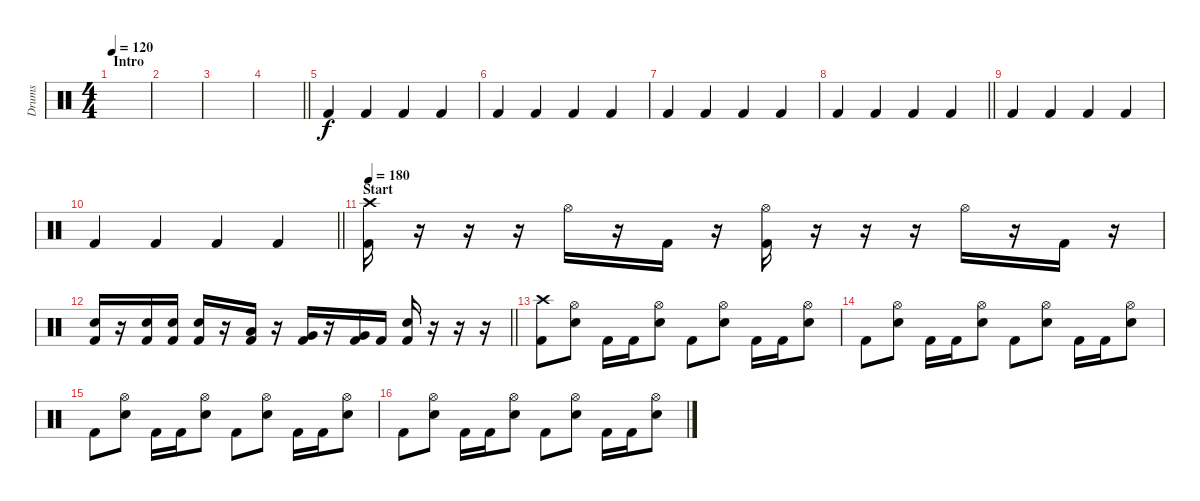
\track ("Drums" "Drums") {instrument percussion}
\staff {score}
\articulation defaults
\ts (4 4)
\section ("" "Intro")
\tempo 120
\clef neutral
\ks c
|
|
|
\barLineRight lightlight
|
\section ("" "")
"Kick (hit) 2".4 "Kick (hit) 2".4 "Kick (hit) 2".4 "Kick (hit) 2".4 |
"Kick (hit) 2".4 "Kick (hit) 2".4 "Kick (hit) 2".4 "Kick (hit) 2".4 |
"Kick (hit) 2".4 "Kick (hit) 2".4 "Kick (hit) 2".4 "Kick (hit) 2".4 |
\barLineRight lightlight "Kick (hit) 2".4 "Kick (hit) 2".4 "Kick (hit) 2".4 "Kick (hit) 2".4
|
"Kick (hit) 2".4 "Kick (hit) 2".4 "Kick (hit) 2".4 "Kick (hit) 2".4 |
\barLineRight lightlight "Kick (hit) 2".4 "Kick (hit) 2".4 "Kick (hit) 2".4 "Kick (hit) 2".4
|
\section ("" "Start")
\tempo 180
("Crash high (hit)" "Kick (hit) 2").16 r.16 r.16 r.16 "Hi-Hat (open)".16 r.16 "Kick (hit) 2".16 r.16 ("Hi-Hat (open)" "Kick (hit) 2").16 r.16 r.16 r.16 "Hi-Hat (open)".16 r.16 "Kick (hit) 2".16 r.16 |
\barLineRight lightlight
("Electric Snare (hit)" "Kick (hit) 2").16 r.16 ("Electric Snare (hit)" "Kick (hit) 2").16 ("Electric Snare (hit)" "Kick (hit) 2").16 ("Electric Snare (hit)" "Kick (hit) 2").16 r.16 ("Low Tom (hit)" "Kick (hit) 2").16 r.16 ("Very Low Tom (hit)" "Kick (hit) 2").16 r.16 ("Very Low Tom (hit)" "Kick (hit) 2").16 "Kick (hit) 2".16 ("Electric Snare (hit)" "Kick (hit) 2").16 r.16 r.16 r.16 |
\section ("" "")
("Crash high (hit)" "Kick (hit) 2").8 ("Hi-Hat (open)" "Electric Snare (hit)").8 "Kick (hit) 2".16 "Kick (hit) 2".16 ("Hi-Hat (open)" "Electric Snare (hit)").8 "Kick (hit) 2".8 ("Hi-Hat (open)" "Electric Snare (hit)").8 "Kick (hit) 2".16 "Kick (hit) 2".16 ("Hi-Hat (open)" "Electric Snare (hit)").8 |
"Kick (hit) 2".8 ("Hi-Hat (open)" "Electric Snare (hit)").8 "Kick (hit) 2".16 "Kick (hit) 2".16 ("Hi-Hat (open)" "Electric Snare (hit)").8 "Kick (hit) 2".8 ("Hi-Hat (open)" "Electric Snare (hit)").8 "Kick (hit) 2".16 "Kick (hit) 2".16 ("Hi-Hat (open)" "Electric Snare (hit)").8 |
"Kick (hit) 2".8 ("Hi-Hat (open)" "Electric Snare (hit)").8 "Kick (hit) 2".16 "Kick (hit) 2".16 ("Hi-Hat (open)" "Electric Snare (hit)").8 "Kick (hit) 2".8 ("Hi-Hat (open)" "Electric Snare (hit)").8 "Kick (hit) 2".16 "Kick (hit) 2".16 ("Hi-Hat (open)" "Electric Snare (hit)").8 |
"Kick (hit) 2".8 ("Hi-Hat (open)" "Electric Snare (hit)").8 "Kick (hit) 2".16 "Kick (hit) 2".16 ("Hi-Hat (open)" "Electric Snare (hit)").8 "Kick (hit) 2".8 ("Hi-Hat (open)" "Electric Snare (hit)").8 "Kick (hit) 2".16 "Kick (hit) 2".16 ("Hi-Hat (open)" "Electric Snare (hit)").8
